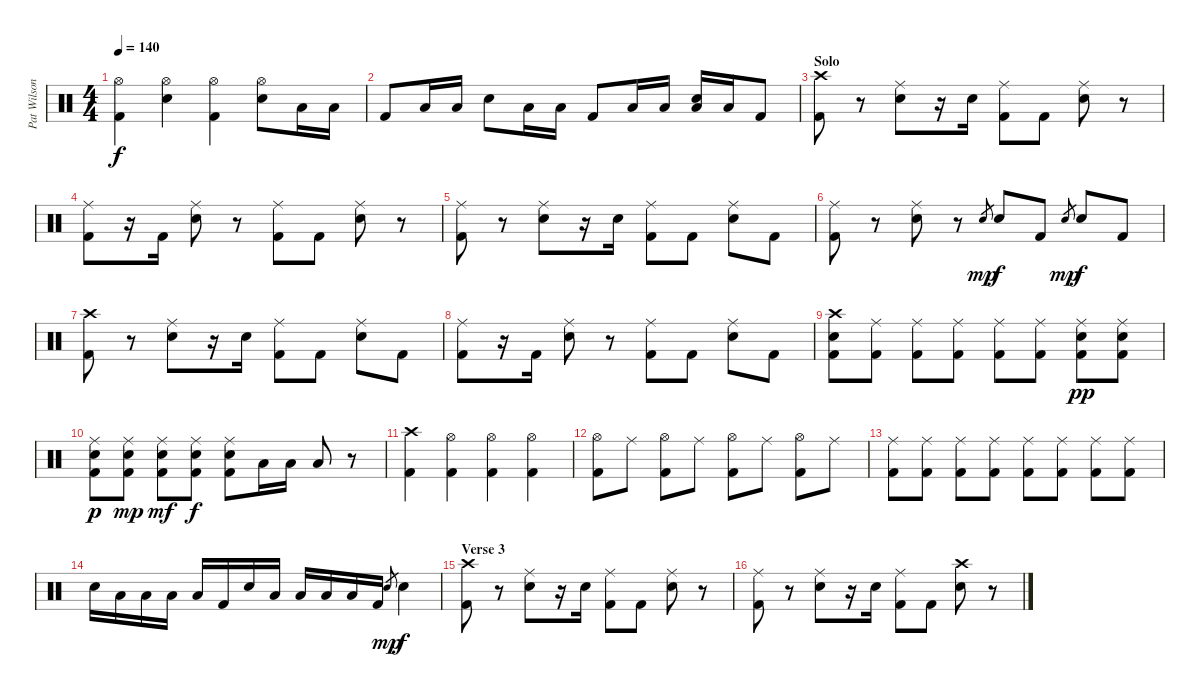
\track ("Pat Wilson - Drums" "Pat Wilson") {instrument percussion}
\staff {score}
\articulation defaults
\ts (4 4)
\tempo 140
\clef neutral
\ks c
("Hi-Hat (open)" "Kick (hit) 2").4{dy f} ("Hi-Hat (open)" "Electric Snare (hit)").4 ("Hi-Hat (open)" "Kick (hit) 2").4 ("Hi-Hat (open)" "Electric Snare (hit)").8 "Low Tom (hit)".16 "Low Tom (hit)".16 |
"Kick (hit) 2".8 "Low Tom (hit)".16 "Low Tom (hit)".16 "Electric Snare (hit)".8 "Low Tom (hit)".16 "Low Tom (hit)".16 "Kick (hit) 2".8 "Low Tom (hit)".16 "Low Tom (hit)".16 ("Low Floor Tom (hit)" "Electric Snare (hit)").16 "Low Floor Tom (hit)".16 "Kick (hit) 2".8 |
\section ("" "Solo")
("Crash high (hit)" "Kick (hit) 2").8 r.8 ("Ride (middle)" "Electric Snare (hit)").8 r.16 "Electric Snare (hit)".16 ("Ride (middle)" "Kick (hit) 2").8 "Kick (hit) 2".8 ("Ride (middle)" "Electric Snare (hit)").8 r.8 |
("Ride (middle)" "Kick (hit) 2").8 r.16 "Kick (hit) 2".16 ("Ride (middle)" "Electric Snare (hit)").8 r.8 ("Ride (middle)" "Kick (hit) 2").8 "Kick (hit) 2".8 ("Ride (middle)" "Electric Snare (hit)").8 r.8 |
("Ride (middle)" "Kick (hit) 2").8 r.8 ("Ride (middle)" "Electric Snare (hit)").8 r.16 "Electric Snare (hit)".16 ("Ride (middle)" "Kick (hit) 2").8 "Kick (hit) 2".8 ("Ride (middle)" "Electric Snare (hit)").8 "Kick (hit) 2".8 |
("Ride (middle)" "Kick (hit) 2").8 r.8 ("Ride (middle)" "Electric Snare (hit)").8 r.8 "Electric Snare (hit)".8{gr dy mp} "Electric Snare (hit)".8{dy f} "Kick (hit) 2".8 "Electric Snare (hit)".8{gr dy mp} "Electric Snare (hit)".8{dy f} "Kick (hit) 2".8 |
("Crash high (hit)" "Kick (hit) 2").8 r.8 ("Ride (middle)" "Electric Snare (hit)").8 r.16 "Electric Snare (hit)".16 ("Ride (middle)" "Kick (hit) 2").8 "Kick (hit) 2".8 ("Ride (middle)" "Electric Snare (hit)").8 "Kick (hit) 2".8 |
("Ride (middle)" "Kick (hit) 2").8 r.16 "Kick (hit) 2".16 ("Ride (middle)" "Electric Snare (hit)").8 r.8 ("Ride (middle)" "Kick (hit) 2").8 "Kick (hit) 2".8 ("Ride (middle)" "Electric Snare (hit)").8 "Kick (hit) 2".8 |
("Crash high (hit)" "Electric Snare (hit)" "Kick (hit) 2").8 ("Ride (middle)" "Kick (hit) 2").8 ("Ride (middle)" "Kick (hit) 2").8 ("Ride (middle)" "Kick (hit) 2").8 ("Ride (middle)" "Kick (hit) 2").8 ("Ride (middle)" "Kick (hit) 2").8 ("Ride (middle)" "Electric Snare (hit)" "Kick (hit) 2").8{dy pp} ("Ride (middle)" "Electric Snare (hit)" "Kick (hit) 2").8 |
("Ride (middle)" "Electric Snare (hit)" "Kick (hit) 2").8{dy p} ("Ride (middle)" "Electric Snare (hit)" "Kick (hit) 2").8{dy mp} ("Ride (middle)" "Electric Snare (hit)" "Kick (hit) 2").8{dy mf} ("Ride (middle)" "Electric Snare (hit)" "Kick (hit) 2").8{dy f} ("Ride (middle)" "Electric Snare (hit)" "Kick (hit) 2").8 "Low Tom (hit)".16 "Low Tom (hit)".16 "Low Floor Tom (hit)".8 r.8 |
("Crash high (hit)" "Kick (hit) 2").4 ("Hi-Hat (open)" "Kick (hit) 2").4 ("Hi-Hat (open)" "Kick (hit) 2").4 ("Hi-Hat (open)" "Kick (hit) 2").4 |
("Hi-Hat (open)" "Kick (hit) 2").8 "Ride (middle)".8 ("Hi-Hat (open)" "Kick (hit) 2").8 "Ride (middle)".8 ("Hi-Hat (open)" "Kick (hit) 2").8 "Ride (middle)".8 ("Hi-Hat (open)" "Kick (hit) 2").8 "Ride (middle)".8 |
("Ride (middle)" "Kick (hit) 2").8 ("Ride (middle)" "Kick (hit) 2").8 ("Ride (middle)" "Kick (hit) 2").8 ("Ride (middle)" "Kick (hit) 2").8 ("Ride (middle)" "Kick (hit) 2").8 ("Ride (middle)" "Kick (hit) 2").8 ("Ride (middle)" "Kick (hit) 2").8 ("Ride (middle)" "Kick (hit) 2").8 |
"Electric Snare (hit)".16 "Low Tom (hit)".16 "Low Tom (hit)".16 "Low Floor Tom (hit)".16 "Low Floor Tom (hit)".16 "Kick (hit) 2".16 "Electric Snare (hit)".16 "Low Tom (hit)".16 "Low Tom (hit)".16 "Low Floor Tom (hit)".16 "Low Floor Tom (hit)".16 "Kick (hit) 2".16 "Electric Snare (hit)".8{gr dy mp} "Electric Snare (hit)".4{dy f} |
\section ("" "Verse 3")
("Crash high (hit)" "Kick (hit) 2").8 r.8 ("Ride (middle)" "Electric Snare (hit)").8 r.16 "Electric Snare (hit)".16 ("Ride (middle)" "Kick (hit) 2").8 "Kick (hit) 2".8 ("Ride (middle)" "Electric Snare (hit)").8 r.8 |
("Ride (middle)" "Kick (hit) 2").8 r.8 ("Ride (middle)" "Electric Snare (hit)").8 r.16 "Electric Snare (hit)".16 ("Ride (middle)" "Kick (hit) 2").8 "Kick (hit) 2".8 ("Crash high (hit)" "Electric Snare (hit)").8 r.8
